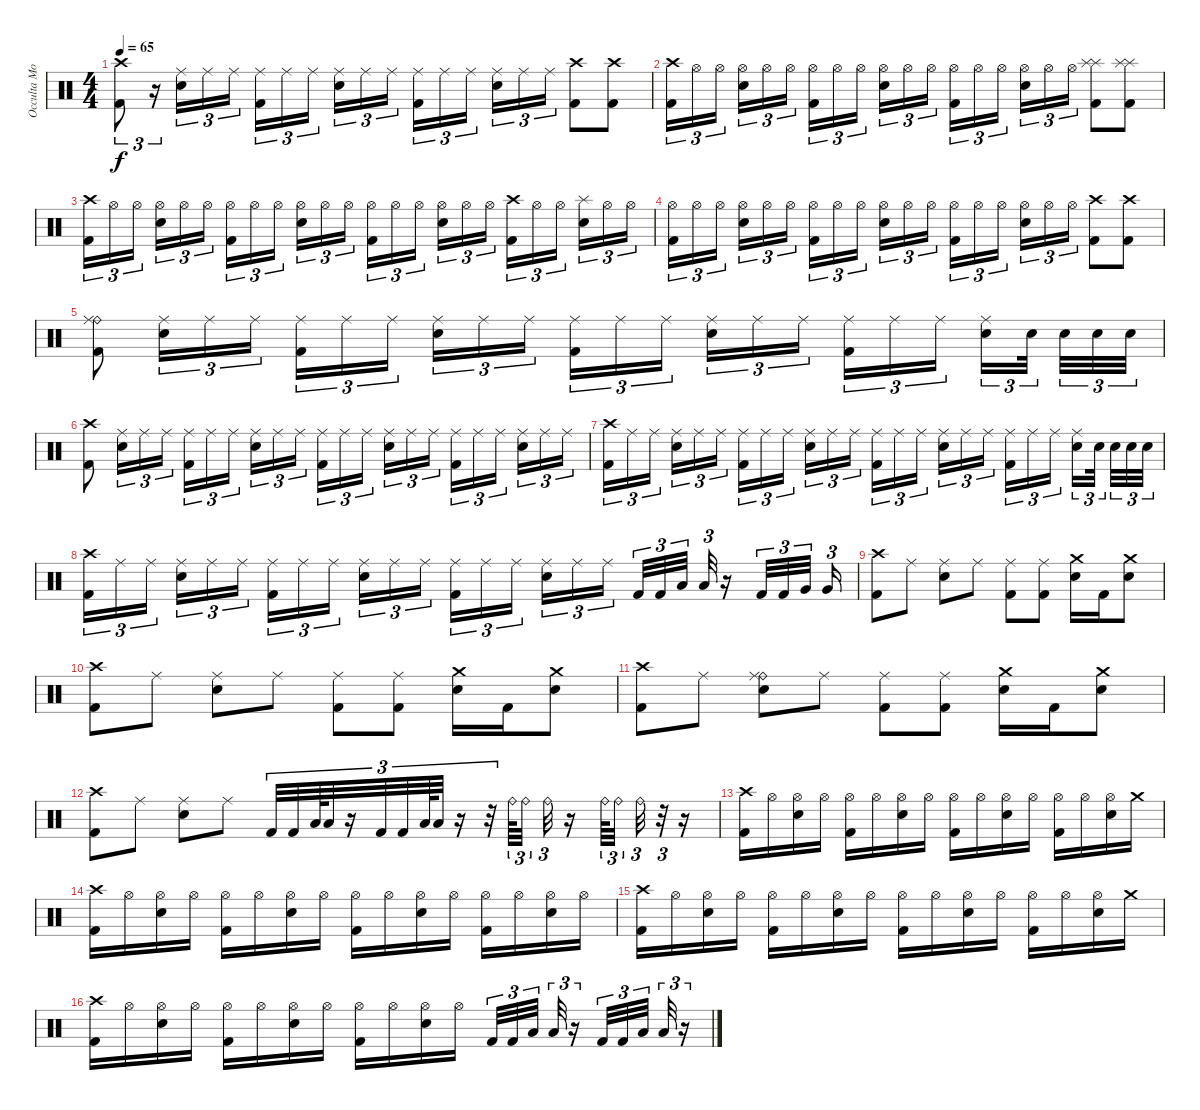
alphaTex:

\track ("Occulta Mors" "Occulta Mo") {instrument percussion}
\staff {score}
\articulation defaults
\ts (4 4)
\tempo 65
\clef neutral
\ks c
("Crash high (hit)" "Kick (hit) 2").8{tu (3 2) dy f} r.16{tu (3 2)} ("Ride (middle)" "Snare (hit) 2").16{tu (3 2)} "Ride (middle)".16{tu (3 2)} "Ride (middle)".16{tu (3 2)} ("Ride (middle)" "Kick (hit) 2").16{tu (3 2)} "Ride (middle)".16{tu (3 2)} "Ride (middle)".16{tu (3 2)} ("Ride (middle)" "Snare (hit) 2").16{tu (3 2)} "Ride (middle)".16{tu (3 2)} "Ride (middle)".16{tu (3 2)} ("Ride (middle)" "Kick (hit) 2").16{tu (3 2)} "Ride (middle)".16{tu (3 2)} "Ride (middle)".16{tu (3 2)} ("Ride (middle)" "Snare (hit) 2").16{tu (3 2)} "Ride (middle)".16{tu (3 2)} "Ride (middle)".16{tu (3 2)} ("Crash high (hit)" "Kick (hit) 2").8 ("Crash high (hit)" "Kick (hit) 2").8 |
("Crash high (hit)" "Kick (hit) 2").16{tu (3 2)} "Hi-Hat (open)".16{tu (3 2)} "Hi-Hat (open)".16{tu (3 2)} ("Hi-Hat (open)" "Snare (hit) 2").16{tu (3 2)} "Hi-Hat (open)".16{tu (3 2)} "Hi-Hat (open)".16{tu (3 2)} ("Hi-Hat (open)" "Kick (hit) 2").16{tu (3 2)} "Hi-Hat (open)".16{tu (3 2)} "Hi-Hat (open)".16{tu (3 2)} ("Hi-Hat (open)" "Snare (hit) 2").16{tu (3 2)} "Hi-Hat (open)".16{tu (3 2)} "Hi-Hat (open)".16{tu (3 2)} ("Hi-Hat (open)" "Kick (hit) 2").16{tu (3 2)} "Hi-Hat (open)".16{tu (3 2)} "Hi-Hat (open)".16{tu (3 2)} ("Hi-Hat (open)" "Snare (hit) 2").16{tu (3 2)} "Hi-Hat (open)".16{tu (3 2)} "Hi-Hat (open)".16{tu (3 2)} ("Splash (hit)" "Splash (hit)" "Kick (hit) 2").8 ("Splash (hit)" "Splash (hit)" "Kick (hit) 2").8 |
("Crash high (hit)" "Kick (hit) 2").16{tu (3 2)} "Hi-Hat (open)".16{tu (3 2)} "Hi-Hat (open)".16{tu (3 2)} ("Hi-Hat (open)" "Snare (hit) 2").16{tu (3 2)} "Hi-Hat (open)".16{tu (3 2)} "Hi-Hat (open)".16{tu (3 2)} ("Hi-Hat (open)" "Kick (hit) 2").16{tu (3 2)} "Hi-Hat (open)".16{tu (3 2)} "Hi-Hat (open)".16{tu (3 2)} ("Hi-Hat (open)" "Snare (hit) 2").16{tu (3 2)} "Hi-Hat (open)".16{tu (3 2)} "Hi-Hat (open)".16{tu (3 2)} ("Hi-Hat (open)" "Kick (hit) 2").16{tu (3 2)} "Hi-Hat (open)".16{tu (3 2)} "Hi-Hat (open)".16{tu (3 2)} ("Hi-Hat (open)" "Snare (hit) 2").16{tu (3 2)} "Hi-Hat (open)".16{tu (3 2)} "Hi-Hat (open)".16{tu (3 2)} ("Crash high (hit)" "Kick (hit) 2").16{tu (3 2)} "Hi-Hat (open)".16{tu (3 2)} "Hi-Hat (open)".16{tu (3 2)} ("Splash (hit)" "Snare (hit) 2").16{tu (3 2)} "Hi-Hat (open)".16{tu (3 2)} "Hi-Hat (open)".16{tu (3 2)} |
("Hi-Hat (open)" "Kick (hit) 2").16{tu (3 2)} "Hi-Hat (open)".16{tu (3 2)} "Hi-Hat (open)".16{tu (3 2)} ("Hi-Hat (open)" "Snare (hit) 2").16{tu (3 2)} "Hi-Hat (open)".16{tu (3 2)} "Hi-Hat (open)".16{tu (3 2)} ("Hi-Hat (open)" "Kick (hit) 2").16{tu (3 2)} "Hi-Hat (open)".16{tu (3 2)} "Hi-Hat (open)".16{tu (3 2)} ("Hi-Hat (open)" "Snare (hit) 2").16{tu (3 2)} "Hi-Hat (open)".16{tu (3 2)} "Hi-Hat (open)".16{tu (3 2)} ("Hi-Hat (open)" "Kick (hit) 2").16{tu (3 2)} "Hi-Hat (open)".16{tu (3 2)} "Hi-Hat (open)".16{tu (3 2)} ("Hi-Hat (open)" "Snare (hit) 2").16{tu (3 2)} "Hi-Hat (open)".16{tu (3 2)} "Hi-Hat (open)".16{tu (3 2)} ("Crash high (hit)" "Kick (hit) 2").8 ("Crash high (hit)" "Kick (hit) 2").8 |
("Ride (bell)" "Ride (middle)" "Kick (hit) 2").8 ("Ride (middle)" "Snare (hit) 2").16{tu (3 2)} "Ride (middle)".16{tu (3 2)} "Ride (middle)".16{tu (3 2)} ("Ride (middle)" "Kick (hit) 2").16{tu (3 2)} "Ride (middle)".16{tu (3 2)} "Ride (middle)".16{tu (3 2)} ("Ride (middle)" "Snare (hit) 2").16{tu (3 2)} "Ride (middle)".16{tu (3 2)} "Ride (middle)".16{tu (3 2)} ("Ride (middle)" "Kick (hit) 2").16{tu (3 2)} "Ride (middle)".16{tu (3 2)} "Ride (middle)".16{tu (3 2)} ("Ride (middle)" "Snare (hit) 2").16{tu (3 2)} "Ride (middle)".16{tu (3 2)} "Ride (middle)".16{tu (3 2)} ("Ride (middle)" "Kick (hit) 2").16{tu (3 2)} "Ride (middle)".16{tu (3 2)} "Ride (middle)".16{tu (3 2)} ("Ride (middle)" "Snare (hit) 2").16{tu (3 2)} "Snare (hit) 2".32{tu (3 2)} "Snare (hit) 2".32{tu (3 2)} "Snare (hit) 2".32{tu (3 2)} "Snare (hit) 2".32{tu (3 2)} |
("Crash high (hit)" "Kick (hit) 2").8 ("Ride (middle)" "Snare (hit) 2").16{tu (3 2)} "Ride (middle)".16{tu (3 2)} "Ride (middle)".16{tu (3 2)} ("Ride (middle)" "Kick (hit) 2").16{tu (3 2)} "Ride (middle)".16{tu (3 2)} "Ride (middle)".16{tu (3 2)} ("Ride (middle)" "Snare (hit) 2").16{tu (3 2)} "Ride (middle)".16{tu (3 2)} "Ride (middle)".16{tu (3 2)} ("Ride (middle)" "Kick (hit) 2").16{tu (3 2)} "Ride (middle)".16{tu (3 2)} "Ride (middle)".16{tu (3 2)} ("Ride (middle)" "Snare (hit) 2").16{tu (3 2)} "Ride (middle)".16{tu (3 2)} "Ride (middle)".16{tu (3 2)} ("Ride (middle)" "Kick (hit) 2").16{tu (3 2)} "Ride (middle)".16{tu (3 2)} "Ride (middle)".16{tu (3 2)} ("Ride (middle)" "Snare (hit) 2").16{tu (3 2)} "Ride (middle)".16{tu (3 2)} "Ride (middle)".16{tu (3 2)} |
("Crash high (hit)" "Kick (hit) 2").16{tu (3 2)} "Ride (middle)".16{tu (3 2)} "Ride (middle)".16{tu (3 2)} ("Ride (middle)" "Snare (hit) 2").16{tu (3 2)} "Ride (middle)".16{tu (3 2)} "Ride (middle)".16{tu (3 2)} ("Ride (middle)" "Kick (hit) 2").16{tu (3 2)} "Ride (middle)".16{tu (3 2)} "Ride (middle)".16{tu (3 2)} ("Ride (middle)" "Snare (hit) 2").16{tu (3 2)} "Ride (middle)".16{tu (3 2)} "Ride (middle)".16{tu (3 2)} ("Ride (middle)" "Kick (hit) 2").16{tu (3 2)} "Ride (middle)".16{tu (3 2)} "Ride (middle)".16{tu (3 2)} ("Ride (middle)" "Snare (hit) 2").16{tu (3 2)} "Ride (middle)".16{tu (3 2)} "Ride (middle)".16{tu (3 2)} ("Ride (middle)" "Kick (hit) 2").16{tu (3 2)} "Ride (middle)".16{tu (3 2)} "Ride (middle)".16{tu (3 2)} ("Ride (middle)" "Snare (hit) 2").16{tu (3 2)} "Snare (hit) 2".32{tu (3 2)} "Snare (hit) 2".32{tu (3 2)} "Snare (hit) 2".32{tu (3 2)} "Snare (hit) 2".32{tu (3 2)} |
("Crash high (hit)" "Kick (hit) 2").16{tu (3 2)} "Ride (middle)".16{tu (3 2)} "Ride (middle)".16{tu (3 2)} ("Ride (middle)" "Snare (hit) 2").16{tu (3 2)} "Ride (middle)".16{tu (3 2)} "Ride (middle)".16{tu (3 2)} ("Ride (middle)" "Kick (hit) 2").16{tu (3 2)} "Ride (middle)".16{tu (3 2)} "Ride (middle)".16{tu (3 2)} ("Ride (middle)" "Snare (hit) 2").16{tu (3 2)} "Ride (middle)".16{tu (3 2)} "Ride (middle)".16{tu (3 2)} ("Ride (middle)" "Kick (hit) 2").16{tu (3 2)} "Ride (middle)".16{tu (3 2)} "Ride (middle)".16{tu (3 2)} ("Ride (middle)" "Snare (hit) 2").16{tu (3 2)} "Ride (middle)".16{tu (3 2)} "Ride (middle)".16{tu (3 2)} "Kick (hit) 2".32{tu (3 2)} "Kick (hit) 2".32{tu (3 2)} "Low Tom (hit)".32{tu (3 2)} "Low Tom (hit)".32{tu (3 2)} r.16 "Kick (hit) 2".32{tu (3 2)} "Kick (hit) 2".32{tu (3 2)} "Very Low Tom (hit)".32{tu (3 2)} "Very Low Tom (hit)".16{tu (3 2)} |
("Crash high (hit)" "Kick (hit) 2").8 "Ride (middle)".8 ("Ride (middle)" "Snare (hit) 2").8 "Ride (middle)".8 ("Ride (middle)" "Kick (hit) 2").8 ("Ride (middle)" "Kick (hit) 2").8 ("Crash medium (hit)" "Snare (hit) 2").16 "Kick (hit) 2".16 ("Crash medium (hit)" "Snare (hit) 2").8 |
("Crash high (hit)" "Kick (hit) 2").8 "Ride (middle)".8 ("Ride (middle)" "Snare (hit) 2").8 "Ride (middle)".8 ("Ride (middle)" "Kick (hit) 2").8 ("Ride (middle)" "Kick (hit) 2").8 ("Crash medium (hit)" "Snare (hit) 2").16 "Kick (hit) 2".16 ("Crash medium (hit)" "Snare (hit) 2").8 |
("Crash high (hit)" "Kick (hit) 2").8 "Ride (middle)".8 ("Ride (bell)" "Ride (middle)" "Snare (hit) 2").8 "Ride (middle)".8 ("Ride (middle)" "Kick (hit) 2").8 ("Ride (middle)" "Kick (hit) 2").8 ("Crash medium (hit)" "Snare (hit) 2").16 "Kick (hit) 2".16 ("Crash medium (hit)" "Snare (hit) 2").8 |
("Crash high (hit)" "Kick (hit) 2").8 "Ride (middle)".8 ("Ride (middle)" "Snare (hit) 2").8 "Ride (middle)".8 "Kick (hit) 2".32{tu (3 2)} "Kick (hit) 2".32{tu (3 2)} "Low Tom (hit)".64{tu (3 2)} "Low Tom (hit)".32{tu (3 2)} r.16{tu (3 2)} "Kick (hit) 2".32{tu (3 2)} "Kick (hit) 2".32{tu (3 2)} "Low Tom (hit)".64{tu (3 2)} "Low Tom (hit)".32{tu (3 2)} r.16{tu (3 2)} r.32{tu (3 2)} "Ride (bell)".64{tu (3 2)} "Ride (bell)".32{tu (3 2)} "Ride (bell)".32{tu (3 2)} r.16 "Ride (bell)".64{tu (3 2)} "Ride (bell)".32{tu (3 2)} "Ride (bell)".32{tu (3 2)} r.32{tu (3 2)} r.16 |
("Crash high (hit)" "Kick (hit) 2").16 "Hi-Hat (open)".16 ("Hi-Hat (open)" "Snare (hit) 2").16 "Hi-Hat (open)".16 ("Hi-Hat (open)" "Kick (hit) 2").16 "Hi-Hat (open)".16 ("Hi-Hat (open)" "Snare (hit) 2").16 "Hi-Hat (open)".16 ("Hi-Hat (open)" "Kick (hit) 2").16 "Hi-Hat (open)".16 ("Hi-Hat (open)" "Snare (hit) 2").16 "Hi-Hat (open)".16 ("Hi-Hat (open)" "Kick (hit) 2").16 "Hi-Hat (open)".16 ("Hi-Hat (open)" "Snare (hit) 2").16 "Crash medium (hit)".16 |
("Crash high (hit)" "Kick (hit) 2").16 "Hi-Hat (open)".16 ("Hi-Hat (open)" "Snare (hit) 2").16 "Hi-Hat (open)".16 ("Hi-Hat (open)" "Kick (hit) 2").16 "Hi-Hat (open)".16 ("Hi-Hat (open)" "Snare (hit) 2").16 "Hi-Hat (open)".16 ("Hi-Hat (open)" "Kick (hit) 2").16 "Hi-Hat (open)".16 ("Hi-Hat (open)" "Snare (hit) 2").16 "Hi-Hat (open)".16 ("Hi-Hat (open)" "Kick (hit) 2").16 "Hi-Hat (open)".16 ("Hi-Hat (open)" "Snare (hit) 2").16 "Hi-Hat (open)".16 |
("Crash high (hit)" "Kick (hit) 2").16 "Hi-Hat (open)".16 ("Hi-Hat (open)" "Snare (hit) 2").16 "Hi-Hat (open)".16 ("Hi-Hat (open)" "Kick (hit) 2").16 "Hi-Hat (open)".16 ("Hi-Hat (open)" "Snare (hit) 2").16 "Hi-Hat (open)".16 ("Hi-Hat (open)" "Kick (hit) 2").16 "Hi-Hat (open)".16 ("Hi-Hat (open)" "Snare (hit) 2").16 "Hi-Hat (open)".16 ("Hi-Hat (open)" "Kick (hit) 2").16 "Hi-Hat (open)".16 ("Hi-Hat (open)" "Snare (hit) 2").16 "Crash medium (hit)".16 |
("Crash high (hit)" "Kick (hit) 2").16 "Hi-Hat (open)".16 ("Hi-Hat (open)" "Snare (hit) 2").16 "Hi-Hat (open)".16 ("Hi-Hat (open)" "Kick (hit) 2").16 "Hi-Hat (open)".16 ("Hi-Hat (open)" "Snare (hit) 2").16 "Hi-Hat (open)".16 ("Hi-Hat (open)" "Kick (hit) 2").16 "Hi-Hat (open)".16 ("Hi-Hat (open)" "Snare (hit) 2").16 "Hi-Hat (open)".16 "Kick (hit) 2".32{tu (3 2)} "Kick (hit) 2".32{tu (3 2)} "Low Tom (hit)".32{tu (3 2)} "Low Tom (hit)".32{tu (3 2)} r.16{tu (3 2)} "Kick (hit) 2".32{tu (3 2)} "Kick (hit) 2".32{tu (3 2)} "Low Tom (hit)".32{tu (3 2)} "Low Tom (hit)".32{tu (3 2)} r.16{tu (3 2)}
